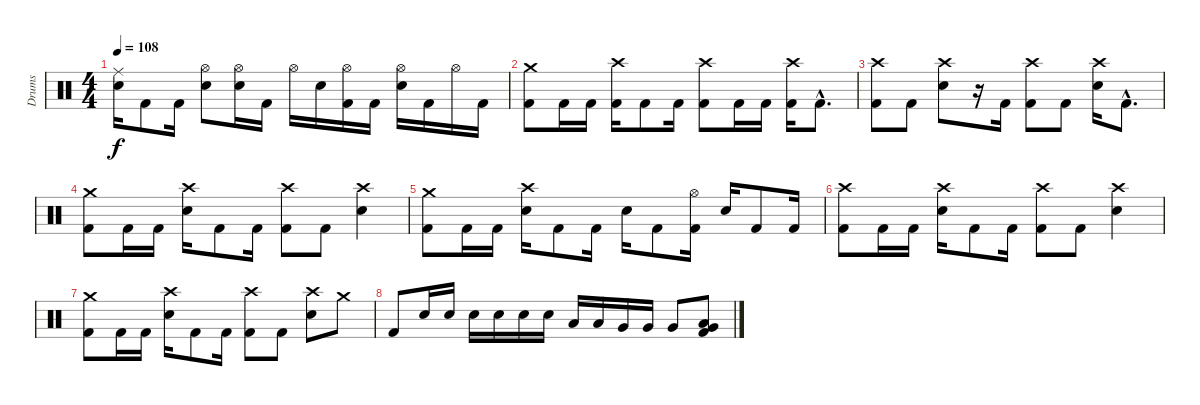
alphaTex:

\track ("Drums" "Drums") {instrument percussion}
\staff {score}
\articulation defaults
\ts (4 4)
\tempo 108
\clef neutral
\ks c
("Ride (middle)" "Snare (hit) 2").16{dy f} "Kick (hit) 2".8 "Kick (hit) 2".16 ("Hi-Hat (open)" "Snare (hit) 2").8 ("Hi-Hat (open)" "Snare (hit) 2").16 "Kick (hit) 2".16 "Hi-Hat (open)".16 "Snare (hit) 2".16 ("Hi-Hat (open)" "Kick (hit) 2").16 "Kick (hit) 2".16 ("Hi-Hat (open)" "Snare (hit) 2").16 "Kick (hit) 2".16 "Hi-Hat (open)".16 "Kick (hit) 2".16 |
("Crash medium (hit)" "Kick (hit) 2").8 "Kick (hit) 2".16 "Kick (hit) 2".16 ("Crash high (hit)" "Kick (hit) 2").16 "Kick (hit) 2".8 "Kick (hit) 2".16 ("Crash high (hit)" "Kick (hit) 2").8 "Kick (hit) 2".16 "Kick (hit) 2".16 ("Crash high (hit)" "Kick (hit) 2").16 "Kick (hit) 2"{hac}.8{d} |
("Crash high (hit)" "Kick (hit) 2").8 "Kick (hit) 2".8 ("Crash high (hit)" "Snare (hit) 2").8 r.16 "Kick (hit) 2".16 ("Crash high (hit)" "Kick (hit) 2").8 "Kick (hit) 2".8 ("Crash high (hit)" "Snare (hit) 2").16 "Kick (hit) 2"{hac}.8{d} |
("Crash medium (hit)" "Kick (hit) 2").8 "Kick (hit) 2".16 "Kick (hit) 2".16 ("Crash high (hit)" "Snare (hit) 2").16 "Kick (hit) 2".8 "Kick (hit) 2".16 ("Crash high (hit)" "Kick (hit) 2").8 "Kick (hit) 2".8 ("Crash high (hit)" "Snare (hit) 2").4 |
("Crash medium (hit)" "Kick (hit) 2").8 "Kick (hit) 2".16 "Kick (hit) 2".16 ("Crash high (hit)" "Snare (hit) 2").16 "Kick (hit) 2".8 "Kick (hit) 2".16 "Snare (hit) 2".16 "Kick (hit) 2".8 ("Hi-Hat (open)" "Kick (hit) 2").16 "Snare (hit) 2".16 "Kick (hit) 2".8 "Kick (hit) 2".16 |
("Crash high (hit)" "Kick (hit) 2").8 "Kick (hit) 2".16 "Kick (hit) 2".16 ("Crash high (hit)" "Snare (hit) 2").16 "Kick (hit) 2".8 "Kick (hit) 2".16 ("Crash high (hit)" "Kick (hit) 2").8 "Kick (hit) 2".8 ("Crash high (hit)" "Snare (hit) 2").4 |
("Crash medium (hit)" "Kick (hit) 2").8 "Kick (hit) 2".16 "Kick (hit) 2".16 ("Crash high (hit)" "Snare (hit) 2").16 "Kick (hit) 2".8 "Kick (hit) 2".16 ("Crash high (hit)" "Kick (hit) 2").8 "Kick (hit) 2".8 ("Crash high (hit)" "Snare (hit) 2").8 "Crash medium (hit)".8 |
"Kick (hit) 2".8 "Snare (hit) 2".16 "Snare (hit) 2".16 "Snare (hit) 2".16 "Snare (hit) 2".16 "Snare (hit) 2".16 "Snare (hit) 2".16 "Low Tom (hit)".16 "Low Tom (hit)".16 "Very Low Tom (hit)".16 "Very Low Tom (hit)".16 "Very Low Tom (hit)".8 ("Very Low Tom (hit)" "Low Tom (hit)" "Kick (hit) 2").8
